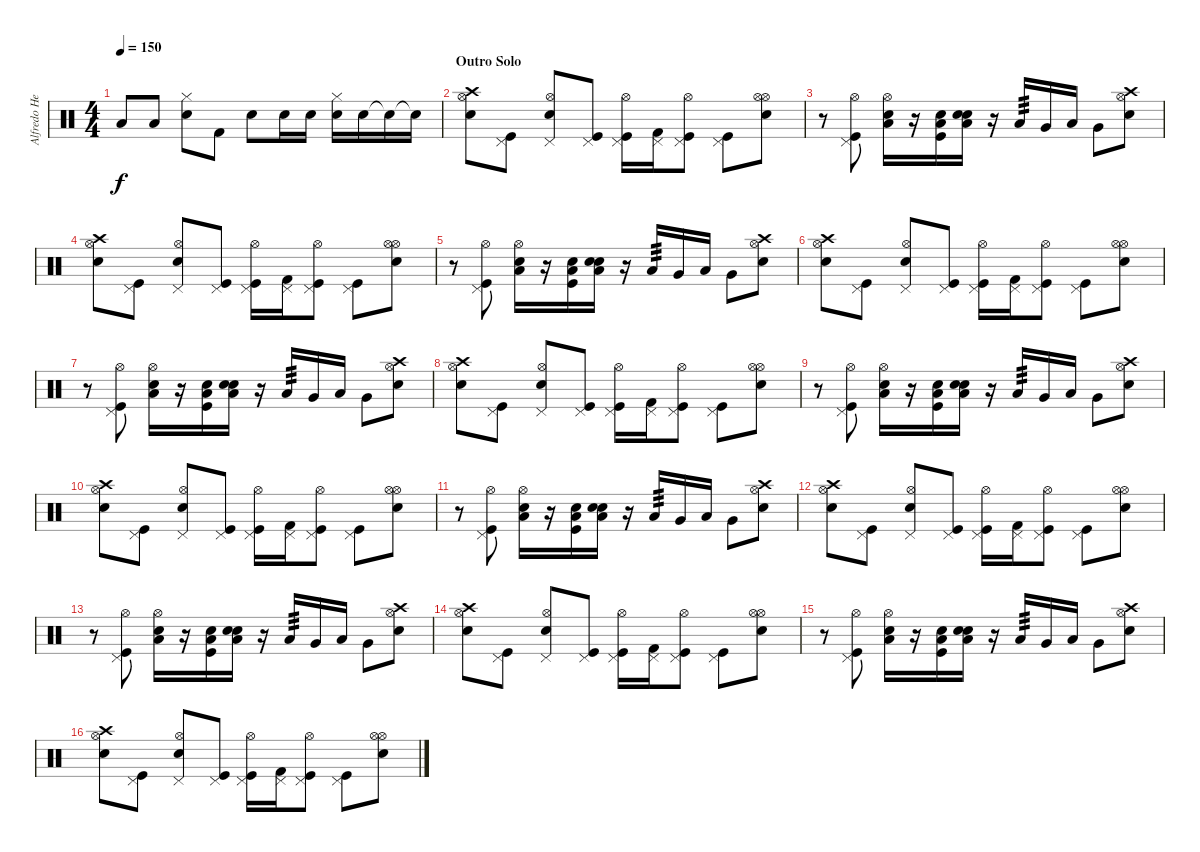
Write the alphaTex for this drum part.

\track ("Alfredo Hernandez" "Alfredo He") {instrument percussion}
\staff {score}
\articulation defaults
\ts (4 4)
\tempo 150
\clef neutral
\ks c "Low Tom (hit)".8{dy f} "Low Tom (hit)".8
("Snare (hit) 2" "Hi-Hat (closed)").8 "Kick (hit) 2".8 "Snare (hit) 2".8 "Electric Snare (hit)".16 "Electric Snare (hit)".16 ("Electric Snare (hit)" "Hi-Hat (closed)").16 "Electric Snare (hit)".16 "Snare (hit)"{t}.16 "Snare (hit)"{t}.16 |
\section ("" "Outro Solo")
("Electric Snare (hit)" "Crash high (hit)" "Hi-Hat (open)").8 ("Kick (hit)" "Pedal Hi-Hat (hit)").8 ("Electric Snare (hit)" "Pedal Hi-Hat (hit)" "Hi-Hat (open)").8 ("Kick (hit)" "Pedal Hi-Hat (hit)").8 ("Kick (hit)" "Pedal Hi-Hat (hit)" "Hi-Hat (open)").16 ("Kick (hit) 2" "Pedal Hi-Hat (hit)").16 ("Kick (hit)" "Pedal Hi-Hat (hit)" "Hi-Hat (open)").8 ("Kick (hit)" "Pedal Hi-Hat (hit)").8 ("Electric Snare (hit)" "Hi-Hat (open)" "Hi-Hat (open)").8 |
r.8 ("Kick (hit)" "Hi-Hat (open)" "Pedal Hi-Hat (hit)").8 ("Electric Snare (hit)" "Low Tom (hit)" "Hi-Hat (open)").16 r.16 ("Kick (hit)" "Low Tom (hit)" "Electric Snare (hit)").16 ("Electric Snare (hit)" "Low Tom (hit)" "Electric Snare (hit)").16 r.16 "Low Tom (hit)".16{tp 3} "Very Low Tom (hit)".16 "Low Tom (hit)".16 "Very Low Tom (hit)".8 ("Electric Snare (hit)" "Crash high (hit)" "Hi-Hat (open)").8 |
("Electric Snare (hit)" "Crash high (hit)" "Hi-Hat (open)").8 ("Kick (hit)" "Pedal Hi-Hat (hit)").8 ("Electric Snare (hit)" "Pedal Hi-Hat (hit)" "Hi-Hat (open)").8 ("Kick (hit)" "Pedal Hi-Hat (hit)").8 ("Kick (hit)" "Pedal Hi-Hat (hit)" "Hi-Hat (open)").16 ("Kick (hit) 2" "Pedal Hi-Hat (hit)").16 ("Kick (hit)" "Pedal Hi-Hat (hit)" "Hi-Hat (open)").8 ("Kick (hit)" "Pedal Hi-Hat (hit)").8 ("Electric Snare (hit)" "Hi-Hat (open)" "Hi-Hat (open)").8 |
r.8 ("Kick (hit)" "Hi-Hat (open)" "Pedal Hi-Hat (hit)").8 ("Electric Snare (hit)" "Low Tom (hit)" "Hi-Hat (open)").16 r.16 ("Kick (hit)" "Low Tom (hit)" "Electric Snare (hit)").16 ("Electric Snare (hit)" "Low Tom (hit)" "Electric Snare (hit)").16 r.16 "Low Tom (hit)".16{tp 3} "Very Low Tom (hit)".16 "Low Tom (hit)".16 "Very Low Tom (hit)".8 ("Electric Snare (hit)" "Crash high (hit)" "Hi-Hat (open)").8 |
("Electric Snare (hit)" "Crash high (hit)" "Hi-Hat (open)").8 ("Kick (hit)" "Pedal Hi-Hat (hit)").8 ("Electric Snare (hit)" "Pedal Hi-Hat (hit)" "Hi-Hat (open)").8 ("Kick (hit)" "Pedal Hi-Hat (hit)").8 ("Kick (hit)" "Pedal Hi-Hat (hit)" "Hi-Hat (open)").16 ("Kick (hit) 2" "Pedal Hi-Hat (hit)").16 ("Kick (hit)" "Pedal Hi-Hat (hit)" "Hi-Hat (open)").8 ("Kick (hit)" "Pedal Hi-Hat (hit)").8 ("Electric Snare (hit)" "Hi-Hat (open)" "Hi-Hat (open)").8 |
r.8 ("Kick (hit)" "Hi-Hat (open)" "Pedal Hi-Hat (hit)").8 ("Electric Snare (hit)" "Low Tom (hit)" "Hi-Hat (open)").16 r.16 ("Kick (hit)" "Low Tom (hit)" "Electric Snare (hit)").16 ("Electric Snare (hit)" "Low Tom (hit)" "Electric Snare (hit)").16 r.16 "Low Tom (hit)".16{tp 3} "Very Low Tom (hit)".16 "Low Tom (hit)".16 "Very Low Tom (hit)".8 ("Electric Snare (hit)" "Crash high (hit)" "Hi-Hat (open)").8 |
("Electric Snare (hit)" "Crash high (hit)" "Hi-Hat (open)").8 ("Kick (hit)" "Pedal Hi-Hat (hit)").8 ("Electric Snare (hit)" "Pedal Hi-Hat (hit)" "Hi-Hat (open)").8 ("Kick (hit)" "Pedal Hi-Hat (hit)").8 ("Kick (hit)" "Pedal Hi-Hat (hit)" "Hi-Hat (open)").16 ("Kick (hit) 2" "Pedal Hi-Hat (hit)").16 ("Kick (hit)" "Pedal Hi-Hat (hit)" "Hi-Hat (open)").8 ("Kick (hit)" "Pedal Hi-Hat (hit)").8 ("Electric Snare (hit)" "Hi-Hat (open)" "Hi-Hat (open)").8 |
r.8 ("Kick (hit)" "Hi-Hat (open)" "Pedal Hi-Hat (hit)").8 ("Electric Snare (hit)" "Low Tom (hit)" "Hi-Hat (open)").16 r.16 ("Kick (hit)" "Low Tom (hit)" "Electric Snare (hit)").16 ("Electric Snare (hit)" "Low Tom (hit)" "Electric Snare (hit)").16 r.16 "Low Tom (hit)".16{tp 3} "Very Low Tom (hit)".16 "Low Tom (hit)".16 "Very Low Tom (hit)".8 ("Electric Snare (hit)" "Crash high (hit)" "Hi-Hat (open)").8 |
("Electric Snare (hit)" "Crash high (hit)" "Hi-Hat (open)").8 ("Kick (hit)" "Pedal Hi-Hat (hit)").8 ("Electric Snare (hit)" "Pedal Hi-Hat (hit)" "Hi-Hat (open)").8 ("Kick (hit)" "Pedal Hi-Hat (hit)").8 ("Kick (hit)" "Pedal Hi-Hat (hit)" "Hi-Hat (open)").16 ("Kick (hit) 2" "Pedal Hi-Hat (hit)").16 ("Kick (hit)" "Pedal Hi-Hat (hit)" "Hi-Hat (open)").8 ("Kick (hit)" "Pedal Hi-Hat (hit)").8 ("Electric Snare (hit)" "Hi-Hat (open)" "Hi-Hat (open)").8 |
r.8 ("Kick (hit)" "Hi-Hat (open)" "Pedal Hi-Hat (hit)").8 ("Electric Snare (hit)" "Low Tom (hit)" "Hi-Hat (open)").16 r.16 ("Kick (hit)" "Low Tom (hit)" "Electric Snare (hit)").16 ("Electric Snare (hit)" "Low Tom (hit)" "Electric Snare (hit)").16 r.16 "Low Tom (hit)".16{tp 3} "Very Low Tom (hit)".16 "Low Tom (hit)".16 "Very Low Tom (hit)".8 ("Electric Snare (hit)" "Crash high (hit)" "Hi-Hat (open)").8 |
("Electric Snare (hit)" "Crash high (hit)" "Hi-Hat (open)").8 ("Kick (hit)" "Pedal Hi-Hat (hit)").8 ("Electric Snare (hit)" "Pedal Hi-Hat (hit)" "Hi-Hat (open)").8 ("Kick (hit)" "Pedal Hi-Hat (hit)").8 ("Kick (hit)" "Pedal Hi-Hat (hit)" "Hi-Hat (open)").16 ("Kick (hit) 2" "Pedal Hi-Hat (hit)").16 ("Kick (hit)" "Pedal Hi-Hat (hit)" "Hi-Hat (open)").8 ("Kick (hit)" "Pedal Hi-Hat (hit)").8 ("Electric Snare (hit)" "Hi-Hat (open)" "Hi-Hat (open)").8 |
r.8 ("Kick (hit)" "Hi-Hat (open)" "Pedal Hi-Hat (hit)").8 ("Electric Snare (hit)" "Low Tom (hit)" "Hi-Hat (open)").16 r.16 ("Kick (hit)" "Low Tom (hit)" "Electric Snare (hit)").16 ("Electric Snare (hit)" "Low Tom (hit)" "Electric Snare (hit)").16 r.16 "Low Tom (hit)".16{tp 3} "Very Low Tom (hit)".16 "Low Tom (hit)".16 "Very Low Tom (hit)".8 ("Electric Snare (hit)" "Crash high (hit)" "Hi-Hat (open)").8 |
("Electric Snare (hit)" "Crash high (hit)" "Hi-Hat (open)").8 ("Kick (hit)" "Pedal Hi-Hat (hit)").8 ("Electric Snare (hit)" "Pedal Hi-Hat (hit)" "Hi-Hat (open)").8 ("Kick (hit)" "Pedal Hi-Hat (hit)").8 ("Kick (hit)" "Pedal Hi-Hat (hit)" "Hi-Hat (open)").16 ("Kick (hit) 2" "Pedal Hi-Hat (hit)").16 ("Kick (hit)" "Pedal Hi-Hat (hit)" "Hi-Hat (open)").8 ("Kick (hit)" "Pedal Hi-Hat (hit)").8 ("Electric Snare (hit)" "Hi-Hat (open)" "Hi-Hat (open)").8 |
r.8 ("Kick (hit)" "Hi-Hat (open)" "Pedal Hi-Hat (hit)").8 ("Electric Snare (hit)" "Low Tom (hit)" "Hi-Hat (open)").16 r.16 ("Kick (hit)" "Low Tom (hit)" "Electric Snare (hit)").16 ("Electric Snare (hit)" "Low Tom (hit)" "Electric Snare (hit)").16 r.16 "Low Tom (hit)".16{tp 3} "Very Low Tom (hit)".16 "Low Tom (hit)".16 "Very Low Tom (hit)".8 ("Electric Snare (hit)" "Crash high (hit)" "Hi-Hat (open)").8 |
("Electric Snare (hit)" "Crash high (hit)" "Hi-Hat (open)").8 ("Kick (hit)" "Pedal Hi-Hat (hit)").8 ("Electric Snare (hit)" "Pedal Hi-Hat (hit)" "Hi-Hat (open)").8 ("Kick (hit)" "Pedal Hi-Hat (hit)").8 ("Kick (hit)" "Pedal Hi-Hat (hit)" "Hi-Hat (open)").16 ("Kick (hit) 2" "Pedal Hi-Hat (hit)").16 ("Kick (hit)" "Pedal Hi-Hat (hit)" "Hi-Hat (open)").8 ("Kick (hit)" "Pedal Hi-Hat (hit)").8 ("Electric Snare (hit)" "Hi-Hat (open)" "Hi-Hat (open)").8
